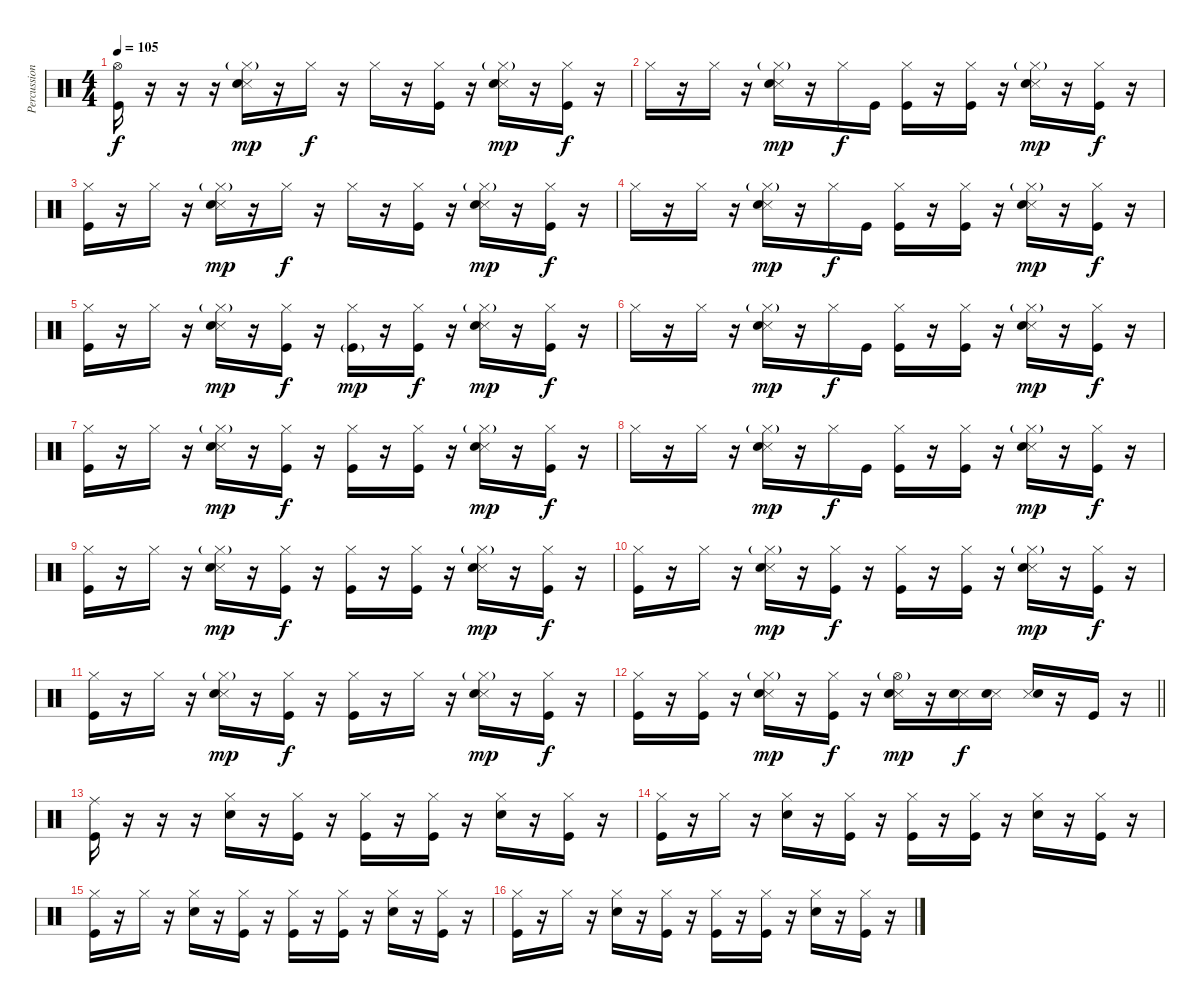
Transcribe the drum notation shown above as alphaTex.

\track ("Percussion" "Percussion") {instrument percussion}
\staff {score}
\articulation defaults
\ts (4 4)
\tempo 105
\clef neutral
\ks c
("Hi-Hat (open)" "Kick (hit)").16{dy f} r.16 r.16 r.16 ("Hi-Hat (closed)"{g} "Snare (side stick) 3" "Snare (hit) 2").16{dy mp} r.16 "Hi-Hat (closed)".16{dy f} r.16 "Hi-Hat (closed)".16 r.16 ("Hi-Hat (closed)" "Kick (hit)").16 r.16 ("Hi-Hat (closed)"{g} "Snare (side stick) 3" "Snare (hit) 2").16{dy mp} r.16 ("Hi-Hat (closed)" "Kick (hit)").16{dy f} r.16 |
"Hi-Hat (closed)".16 r.16 "Hi-Hat (closed)".16 r.16 ("Hi-Hat (closed)"{g} "Snare (side stick) 3" "Snare (hit) 2").16{dy mp} r.16 "Hi-Hat (closed)".16{dy f} "Kick (hit)".16 ("Hi-Hat (closed)" "Kick (hit)").16 r.16 ("Hi-Hat (closed)" "Kick (hit)").16 r.16 ("Hi-Hat (closed)"{g} "Snare (side stick) 3" "Snare (hit) 2").16{dy mp} r.16 ("Hi-Hat (closed)" "Kick (hit)").16{dy f} r.16 |
("Hi-Hat (closed)" "Kick (hit)").16 r.16 "Hi-Hat (closed)".16 r.16 ("Hi-Hat (closed)"{g} "Snare (side stick) 3" "Snare (hit) 2").16{dy mp} r.16 "Hi-Hat (closed)".16{dy f} r.16 "Hi-Hat (closed)".16 r.16 ("Hi-Hat (closed)" "Kick (hit)").16 r.16 ("Hi-Hat (closed)"{g} "Snare (side stick) 3" "Snare (hit) 2").16{dy mp} r.16 ("Hi-Hat (closed)" "Kick (hit)").16{dy f} r.16 |
"Hi-Hat (closed)".16 r.16 "Hi-Hat (closed)".16 r.16 ("Hi-Hat (closed)"{g} "Snare (side stick) 3" "Snare (hit) 2").16{dy mp} r.16 "Hi-Hat (closed)".16{dy f} "Kick (hit)".16 ("Hi-Hat (closed)" "Kick (hit)").16 r.16 ("Hi-Hat (closed)" "Kick (hit)").16 r.16 ("Hi-Hat (closed)"{g} "Snare (side stick) 3" "Snare (hit) 2").16{dy mp} r.16 ("Hi-Hat (closed)" "Kick (hit)").16{dy f} r.16 |
("Hi-Hat (closed)" "Kick (hit)").16 r.16 "Hi-Hat (closed)".16 r.16 ("Hi-Hat (closed)"{g} "Snare (side stick) 3" "Snare (hit) 2").16{dy mp} r.16 ("Hi-Hat (closed)" "Kick (hit)").16{dy f} r.16 ("Hi-Hat (closed)" "Kick (hit)"{g}).16{dy mp} r.16 ("Hi-Hat (closed)" "Kick (hit)").16{dy f} r.16 ("Hi-Hat (closed)"{g} "Snare (side stick) 3" "Snare (hit) 2").16{dy mp} r.16 ("Hi-Hat (closed)" "Kick (hit)").16{dy f} r.16 |
"Hi-Hat (closed)".16 r.16 "Hi-Hat (closed)".16 r.16 ("Hi-Hat (closed)"{g} "Snare (side stick) 3" "Snare (hit) 2").16{dy mp} r.16 "Hi-Hat (closed)".16{dy f} "Kick (hit)".16 ("Hi-Hat (closed)" "Kick (hit)").16 r.16 ("Hi-Hat (closed)" "Kick (hit)").16 r.16 ("Hi-Hat (closed)"{g} "Snare (side stick) 3" "Snare (hit) 2").16{dy mp} r.16 ("Hi-Hat (closed)" "Kick (hit)").16{dy f} r.16 |
("Hi-Hat (closed)" "Kick (hit)").16 r.16 "Hi-Hat (closed)".16 r.16 ("Hi-Hat (closed)"{g} "Snare (side stick) 3" "Snare (hit) 2").16{dy mp} r.16 ("Hi-Hat (closed)" "Kick (hit)").16{dy f} r.16 ("Hi-Hat (closed)" "Kick (hit)").16 r.16 ("Hi-Hat (closed)" "Kick (hit)").16 r.16 ("Hi-Hat (closed)"{g} "Snare (side stick) 3" "Snare (hit) 2").16{dy mp} r.16 ("Hi-Hat (closed)" "Kick (hit)").16{dy f} r.16 |
"Hi-Hat (closed)".16 r.16 "Hi-Hat (closed)".16 r.16 ("Hi-Hat (closed)"{g} "Snare (side stick) 3" "Snare (hit) 2").16{dy mp} r.16 "Hi-Hat (closed)".16{dy f} "Kick (hit)".16 ("Hi-Hat (closed)" "Kick (hit)").16 r.16 ("Hi-Hat (closed)" "Kick (hit)").16 r.16 ("Hi-Hat (closed)"{g} "Snare (side stick) 3" "Snare (hit) 2").16{dy mp} r.16 ("Hi-Hat (closed)" "Kick (hit)").16{dy f} r.16 |
("Hi-Hat (closed)" "Kick (hit)").16 r.16 "Hi-Hat (closed)".16 r.16 ("Hi-Hat (closed)"{g} "Snare (side stick) 3" "Snare (hit) 2").16{dy mp} r.16 ("Hi-Hat (closed)" "Kick (hit)").16{dy f} r.16 ("Hi-Hat (closed)" "Kick (hit)").16 r.16 ("Hi-Hat (closed)" "Kick (hit)").16 r.16 ("Hi-Hat (closed)"{g} "Snare (side stick) 3" "Snare (hit) 2").16{dy mp} r.16 ("Hi-Hat (closed)" "Kick (hit)").16{dy f} r.16 |
("Hi-Hat (closed)" "Kick (hit)").16 r.16 "Hi-Hat (closed)".16 r.16 ("Hi-Hat (closed)"{g} "Snare (side stick) 3" "Snare (hit) 2").16{dy mp} r.16 ("Hi-Hat (closed)" "Kick (hit)").16{dy f} r.16 ("Hi-Hat (closed)" "Kick (hit)").16 r.16 ("Hi-Hat (closed)" "Kick (hit)").16 r.16 ("Hi-Hat (closed)"{g} "Snare (side stick) 3" "Snare (hit) 2").16{dy mp} r.16 ("Hi-Hat (closed)" "Kick (hit)").16{dy f} r.16 |
("Hi-Hat (closed)" "Kick (hit)").16 r.16 "Hi-Hat (closed)".16 r.16 ("Hi-Hat (closed)"{g} "Snare (side stick) 3" "Snare (hit) 2").16{dy mp} r.16 ("Hi-Hat (closed)" "Kick (hit)").16{dy f} r.16 ("Hi-Hat (closed)" "Kick (hit)").16 r.16 "Hi-Hat (closed)".16 r.16 ("Hi-Hat (closed)"{g} "Snare (side stick) 3" "Snare (hit) 2").16{dy mp} r.16 ("Hi-Hat (closed)" "Kick (hit)").16{dy f} r.16 |
\barLineRight lightlight
("Hi-Hat (closed)" "Kick (hit)").16 r.16 ("Hi-Hat (closed)" "Kick (hit)").16 r.16 ("Hi-Hat (closed)"{g} "Snare (side stick) 3" "Snare (hit) 2").16{dy mp} r.16 ("Hi-Hat (closed)" "Kick (hit)").16{dy f} r.16 ("Hi-Hat (open)"{g} "Snare (side stick) 3" "Snare (hit) 2").16{dy mp} r.16 ("Snare (side stick) 3" "Snare (hit) 2").16{dy f} ("Snare (side stick) 3" "Snare (hit) 2").16 ("Snare (side stick) 3" "Snare (hit) 2").16 r.16 "Kick (hit)".16 r.16 |
("Ride (middle)" "Kick (hit)").16 r.16 r.16 r.16 ("Hi-Hat (closed)" "Snare (hit) 2").16 r.16 ("Hi-Hat (closed)" "Kick (hit)").16 r.16 ("Hi-Hat (closed)" "Kick (hit)").16 r.16 ("Hi-Hat (closed)" "Kick (hit)").16 r.16 ("Hi-Hat (closed)" "Snare (hit) 2").16 r.16 ("Hi-Hat (closed)" "Kick (hit)").16 r.16 |
("Hi-Hat (closed)" "Kick (hit)").16 r.16 "Hi-Hat (closed)".16 r.16 ("Hi-Hat (closed)" "Snare (hit) 2").16 r.16 ("Hi-Hat (closed)" "Kick (hit)").16 r.16 ("Hi-Hat (closed)" "Kick (hit)").16 r.16 ("Hi-Hat (closed)" "Kick (hit)").16 r.16 ("Hi-Hat (closed)" "Snare (hit) 2").16 r.16 ("Hi-Hat (closed)" "Kick (hit)").16 r.16 |
("Hi-Hat (closed)" "Kick (hit)").16 r.16 "Hi-Hat (closed)".16 r.16 ("Hi-Hat (closed)" "Snare (hit) 2").16 r.16 ("Hi-Hat (closed)" "Kick (hit)").16 r.16 ("Hi-Hat (closed)" "Kick (hit)").16 r.16 ("Hi-Hat (closed)" "Kick (hit)").16 r.16 ("Hi-Hat (closed)" "Snare (hit) 2").16 r.16 ("Hi-Hat (closed)" "Kick (hit)").16 r.16 |
("Hi-Hat (closed)" "Kick (hit)").16 r.16 "Hi-Hat (closed)".16 r.16 ("Hi-Hat (closed)" "Snare (hit) 2").16 r.16 ("Hi-Hat (closed)" "Kick (hit)").16 r.16 ("Hi-Hat (closed)" "Kick (hit)").16 r.16 ("Hi-Hat (closed)" "Kick (hit)").16 r.16 ("Hi-Hat (closed)" "Snare (hit) 2").16 r.16 ("Hi-Hat (closed)" "Kick (hit)").16 r.16
